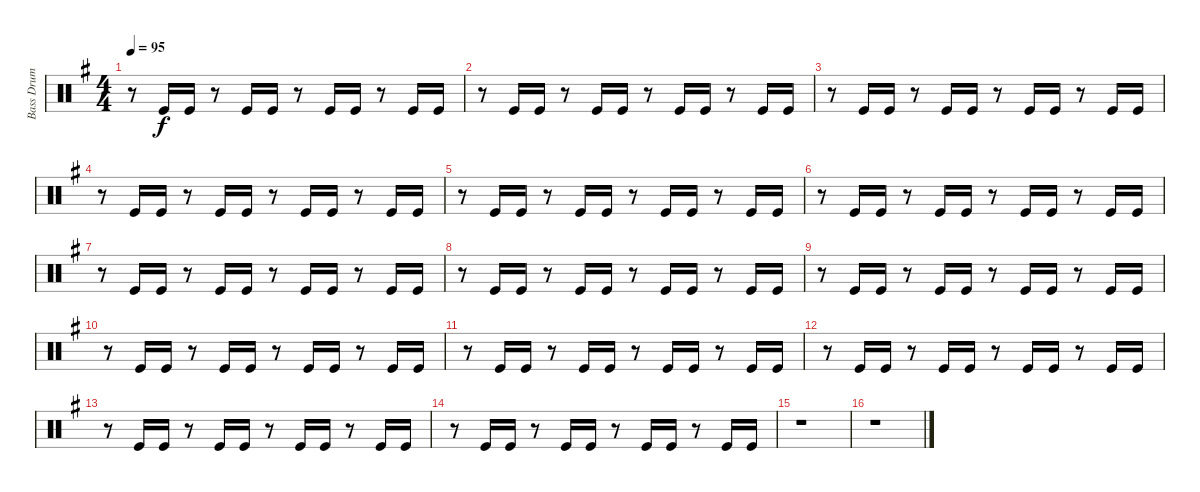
\track ("Bass Drum" "Bass Drum") {instrument percussion}
\staff {score}
\articulation defaults
\ts (4 4)
\tempo 95
\clef neutral
\ks g
r.8{dy f} "Kick (hit)".16 "Kick (hit)".16 r.8 "Kick (hit)".16 "Kick (hit)".16 r.8 "Kick (hit)".16 "Kick (hit)".16 r.8 "Kick (hit)".16 "Kick (hit)".16 |
r.8 "Kick (hit)".16 "Kick (hit)".16 r.8 "Kick (hit)".16 "Kick (hit)".16 r.8 "Kick (hit)".16 "Kick (hit)".16 r.8 "Kick (hit)".16 "Kick (hit)".16 |
r.8 "Kick (hit)".16 "Kick (hit)".16 r.8 "Kick (hit)".16 "Kick (hit)".16 r.8 "Kick (hit)".16 "Kick (hit)".16 r.8 "Kick (hit)".16 "Kick (hit)".16 |
r.8 "Kick (hit)".16 "Kick (hit)".16 r.8 "Kick (hit)".16 "Kick (hit)".16 r.8 "Kick (hit)".16 "Kick (hit)".16 r.8 "Kick (hit)".16 "Kick (hit)".16 |
r.8 "Kick (hit)".16 "Kick (hit)".16 r.8 "Kick (hit)".16 "Kick (hit)".16 r.8 "Kick (hit)".16 "Kick (hit)".16 r.8 "Kick (hit)".16 "Kick (hit)".16 |
r.8 "Kick (hit)".16 "Kick (hit)".16 r.8 "Kick (hit)".16 "Kick (hit)".16 r.8 "Kick (hit)".16 "Kick (hit)".16 r.8 "Kick (hit)".16 "Kick (hit)".16 |
r.8 "Kick (hit)".16 "Kick (hit)".16 r.8 "Kick (hit)".16 "Kick (hit)".16 r.8 "Kick (hit)".16 "Kick (hit)".16 r.8 "Kick (hit)".16 "Kick (hit)".16 |
r.8 "Kick (hit)".16 "Kick (hit)".16 r.8 "Kick (hit)".16 "Kick (hit)".16 r.8 "Kick (hit)".16 "Kick (hit)".16 r.8 "Kick (hit)".16 "Kick (hit)".16 |
r.8 "Kick (hit)".16 "Kick (hit)".16 r.8 "Kick (hit)".16 "Kick (hit)".16 r.8 "Kick (hit)".16 "Kick (hit)".16 r.8 "Kick (hit)".16 "Kick (hit)".16 |
r.8 "Kick (hit)".16 "Kick (hit)".16 r.8 "Kick (hit)".16 "Kick (hit)".16 r.8 "Kick (hit)".16 "Kick (hit)".16 r.8 "Kick (hit)".16 "Kick (hit)".16 |
r.8 "Kick (hit)".16 "Kick (hit)".16 r.8 "Kick (hit)".16 "Kick (hit)".16 r.8 "Kick (hit)".16 "Kick (hit)".16 r.8 "Kick (hit)".16 "Kick (hit)".16 |
r.8 "Kick (hit)".16 "Kick (hit)".16 r.8 "Kick (hit)".16 "Kick (hit)".16 r.8 "Kick (hit)".16 "Kick (hit)".16 r.8 "Kick (hit)".16 "Kick (hit)".16 |
r.8 "Kick (hit)".16 "Kick (hit)".16 r.8 "Kick (hit)".16 "Kick (hit)".16 r.8 "Kick (hit)".16 "Kick (hit)".16 r.8 "Kick (hit)".16 "Kick (hit)".16 |
r.8 "Kick (hit)".16 "Kick (hit)".16 r.8 "Kick (hit)".16 "Kick (hit)".16 r.8 "Kick (hit)".16 "Kick (hit)".16 r.8 "Kick (hit)".16 "Kick (hit)".16 |
r.1 |
r.1
